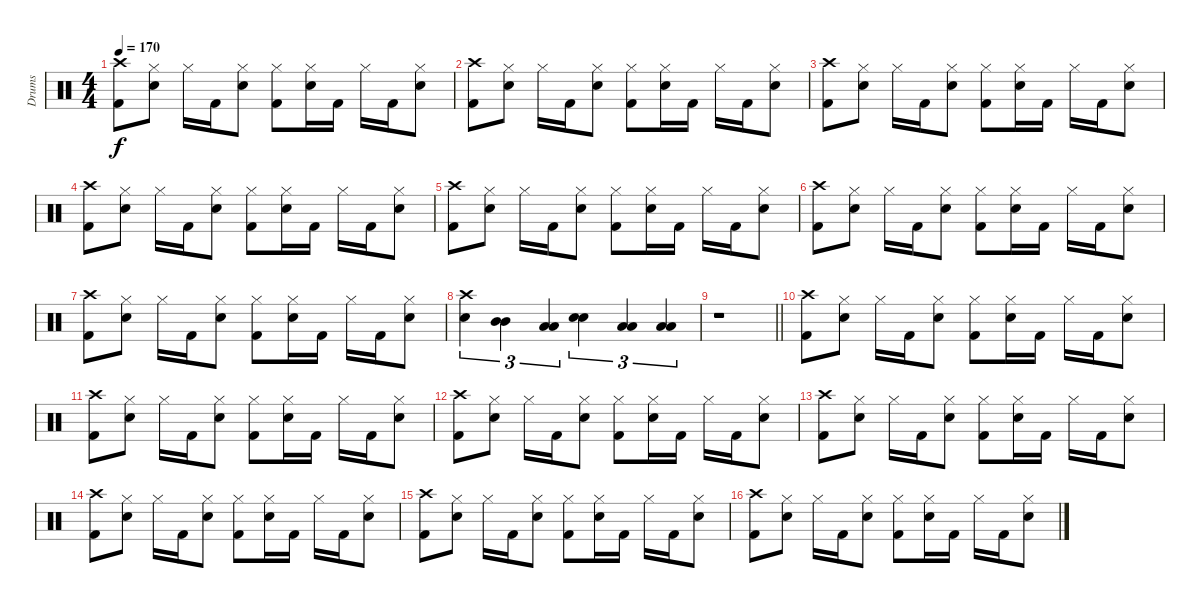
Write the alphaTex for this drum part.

\track ("Drums" "Drums") {instrument percussion}
\staff {score}
\articulation defaults
\ts (4 4)
\tempo 170
\clef neutral
\ks c
("Crash high (hit)" "Kick (hit) 2").8{dy f} ("Hi-Hat (closed)" "Snare (hit) 2").8 "Hi-Hat (closed)".16 "Kick (hit) 2".16 ("Hi-Hat (closed)" "Snare (hit) 2").8 ("Hi-Hat (closed)" "Kick (hit) 2").8 ("Hi-Hat (closed)" "Snare (hit) 2").16 "Kick (hit) 2".16 "Hi-Hat (closed)".16 "Kick (hit) 2".16 ("Hi-Hat (closed)" "Snare (hit) 2").8 |
("Crash high (hit)" "Kick (hit) 2").8 ("Hi-Hat (closed)" "Snare (hit) 2").8 "Hi-Hat (closed)".16 "Kick (hit) 2".16 ("Hi-Hat (closed)" "Snare (hit) 2").8 ("Hi-Hat (closed)" "Kick (hit) 2").8 ("Hi-Hat (closed)" "Snare (hit) 2").16 "Kick (hit) 2".16 "Hi-Hat (closed)".16 "Kick (hit) 2".16 ("Hi-Hat (closed)" "Snare (hit) 2").8 |
("Crash high (hit)" "Kick (hit) 2").8 ("Hi-Hat (closed)" "Snare (hit) 2").8 "Hi-Hat (closed)".16 "Kick (hit) 2".16 ("Hi-Hat (closed)" "Snare (hit) 2").8 ("Hi-Hat (closed)" "Kick (hit) 2").8 ("Hi-Hat (closed)" "Snare (hit) 2").16 "Kick (hit) 2".16 "Hi-Hat (closed)".16 "Kick (hit) 2".16 ("Hi-Hat (closed)" "Snare (hit) 2").8 |
("Crash high (hit)" "Kick (hit) 2").8 ("Hi-Hat (closed)" "Snare (hit) 2").8 "Hi-Hat (closed)".16 "Kick (hit) 2".16 ("Hi-Hat (closed)" "Snare (hit) 2").8 ("Hi-Hat (closed)" "Kick (hit) 2").8 ("Hi-Hat (closed)" "Snare (hit) 2").16 "Kick (hit) 2".16 "Hi-Hat (closed)".16 "Kick (hit) 2".16 ("Hi-Hat (closed)" "Snare (hit) 2").8 |
("Crash high (hit)" "Kick (hit) 2").8 ("Hi-Hat (closed)" "Snare (hit) 2").8 "Hi-Hat (closed)".16 "Kick (hit) 2".16 ("Hi-Hat (closed)" "Snare (hit) 2").8 ("Hi-Hat (closed)" "Kick (hit) 2").8 ("Hi-Hat (closed)" "Snare (hit) 2").16 "Kick (hit) 2".16 "Hi-Hat (closed)".16 "Kick (hit) 2".16 ("Hi-Hat (closed)" "Snare (hit) 2").8 |
("Crash high (hit)" "Kick (hit) 2").8 ("Hi-Hat (closed)" "Snare (hit) 2").8 "Hi-Hat (closed)".16 "Kick (hit) 2".16 ("Hi-Hat (closed)" "Snare (hit) 2").8 ("Hi-Hat (closed)" "Kick (hit) 2").8 ("Hi-Hat (closed)" "Snare (hit) 2").16 "Kick (hit) 2".16 "Hi-Hat (closed)".16 "Kick (hit) 2".16 ("Hi-Hat (closed)" "Snare (hit) 2").8 |
("Crash high (hit)" "Kick (hit) 2").8 ("Hi-Hat (closed)" "Snare (hit) 2").8 "Hi-Hat (closed)".16 "Kick (hit) 2".16 ("Hi-Hat (closed)" "Snare (hit) 2").8 ("Hi-Hat (closed)" "Kick (hit) 2").8 ("Hi-Hat (closed)" "Snare (hit) 2").16 "Kick (hit) 2".16 "Hi-Hat (closed)".16 "Kick (hit) 2".16 ("Hi-Hat (closed)" "Snare (hit) 2").8 |
("Crash high (hit)" "Snare (hit) 2").4{tu (3 2)} ("Mid Tom (hit)" "Mid Tom (hit)").4{tu (3 2)} ("Low Tom (hit)" "Low Tom (hit)").4{tu (3 2)} ("Snare (hit) 2" "Snare (hit) 2").4{tu (3 2)} ("Low Tom (hit)" "Low Tom (hit)").4{tu (3 2)} ("Low Floor Tom (hit)" "Low Floor Tom (hit)").4{tu (3 2)} |
\barLineRight lightlight
r.1 |
("Crash high (hit)" "Kick (hit) 2").8 ("Hi-Hat (closed)" "Snare (hit) 2").8 "Hi-Hat (closed)".16 "Kick (hit) 2".16 ("Hi-Hat (closed)" "Snare (hit) 2").8 ("Hi-Hat (closed)" "Kick (hit) 2").8 ("Hi-Hat (closed)" "Snare (hit) 2").16 "Kick (hit) 2".16 "Hi-Hat (closed)".16 "Kick (hit) 2".16 ("Hi-Hat (closed)" "Snare (hit) 2").8 |
("Crash high (hit)" "Kick (hit) 2").8 ("Hi-Hat (closed)" "Snare (hit) 2").8 "Hi-Hat (closed)".16 "Kick (hit) 2".16 ("Hi-Hat (closed)" "Snare (hit) 2").8 ("Hi-Hat (closed)" "Kick (hit) 2").8 ("Hi-Hat (closed)" "Snare (hit) 2").16 "Kick (hit) 2".16 "Hi-Hat (closed)".16 "Kick (hit) 2".16 ("Hi-Hat (closed)" "Snare (hit) 2").8 |
("Crash high (hit)" "Kick (hit) 2").8 ("Hi-Hat (closed)" "Snare (hit) 2").8 "Hi-Hat (closed)".16 "Kick (hit) 2".16 ("Hi-Hat (closed)" "Snare (hit) 2").8 ("Hi-Hat (closed)" "Kick (hit) 2").8 ("Hi-Hat (closed)" "Snare (hit) 2").16 "Kick (hit) 2".16 "Hi-Hat (closed)".16 "Kick (hit) 2".16 ("Hi-Hat (closed)" "Snare (hit) 2").8 |
("Crash high (hit)" "Kick (hit) 2").8 ("Hi-Hat (closed)" "Snare (hit) 2").8 "Hi-Hat (closed)".16 "Kick (hit) 2".16 ("Hi-Hat (closed)" "Snare (hit) 2").8 ("Hi-Hat (closed)" "Kick (hit) 2").8 ("Hi-Hat (closed)" "Snare (hit) 2").16 "Kick (hit) 2".16 "Hi-Hat (closed)".16 "Kick (hit) 2".16 ("Hi-Hat (closed)" "Snare (hit) 2").8 |
("Crash high (hit)" "Kick (hit) 2").8 ("Hi-Hat (closed)" "Snare (hit) 2").8 "Hi-Hat (closed)".16 "Kick (hit) 2".16 ("Hi-Hat (closed)" "Snare (hit) 2").8 ("Hi-Hat (closed)" "Kick (hit) 2").8 ("Hi-Hat (closed)" "Snare (hit) 2").16 "Kick (hit) 2".16 "Hi-Hat (closed)".16 "Kick (hit) 2".16 ("Hi-Hat (closed)" "Snare (hit) 2").8 |
("Crash high (hit)" "Kick (hit) 2").8 ("Hi-Hat (closed)" "Snare (hit) 2").8 "Hi-Hat (closed)".16 "Kick (hit) 2".16 ("Hi-Hat (closed)" "Snare (hit) 2").8 ("Hi-Hat (closed)" "Kick (hit) 2").8 ("Hi-Hat (closed)" "Snare (hit) 2").16 "Kick (hit) 2".16 "Hi-Hat (closed)".16 "Kick (hit) 2".16 ("Hi-Hat (closed)" "Snare (hit) 2").8 |
("Crash high (hit)" "Kick (hit) 2").8 ("Hi-Hat (closed)" "Snare (hit) 2").8 "Hi-Hat (closed)".16 "Kick (hit) 2".16 ("Hi-Hat (closed)" "Snare (hit) 2").8 ("Hi-Hat (closed)" "Kick (hit) 2").8 ("Hi-Hat (closed)" "Snare (hit) 2").16 "Kick (hit) 2".16 "Hi-Hat (closed)".16 "Kick (hit) 2".16 ("Hi-Hat (closed)" "Snare (hit) 2").8
